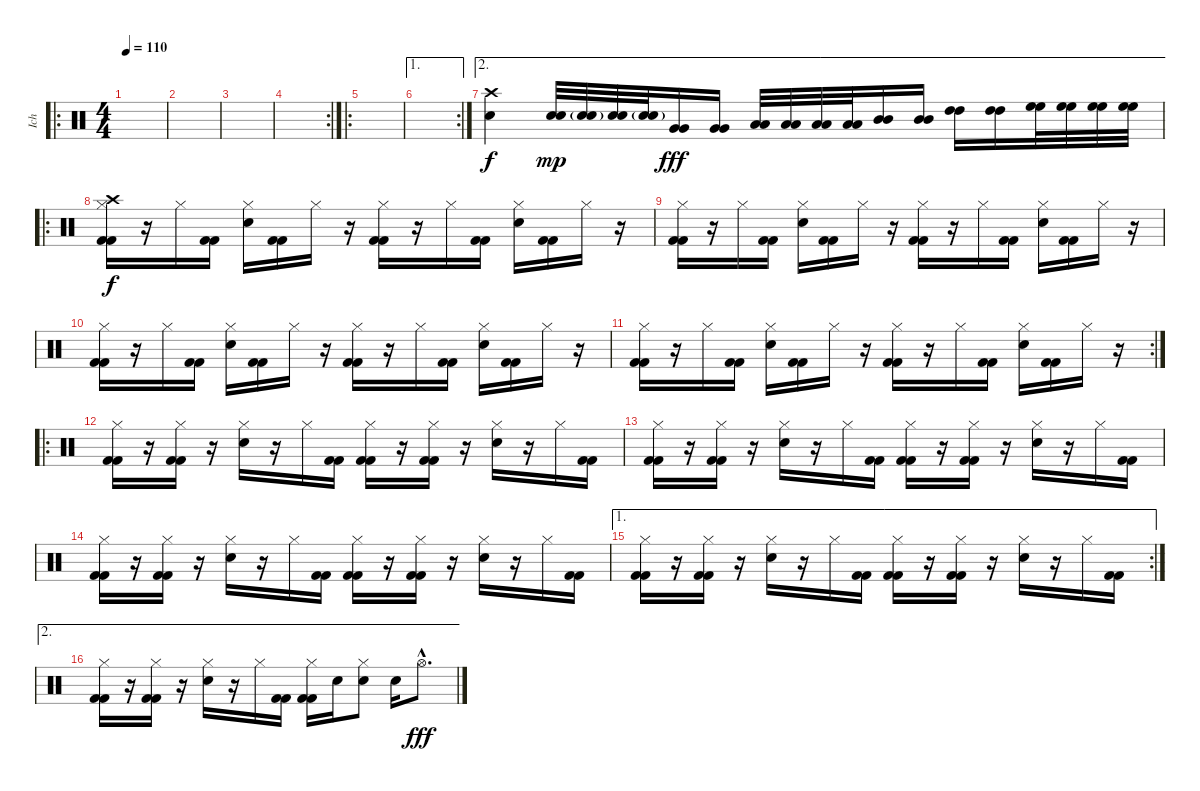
\track ("Ich" "Ich") {instrument percussion}
\staff {score}
\articulation defaults
\ro
\ts (4 4)
\tempo 110
\clef neutral
\ks c
|
|
|
\rc 2
|
\ro
|
\ae 1
\rc 2
|
\ae 2
("Crash high (hit)" "Snare (hit) 2").4 ("Electric Snare (hit)" "Electric Snare (hit)").32{dy mp} ("Electric Snare (hit)" "Electric Snare (hit)"{g}).32 ("Electric Snare (hit)" "Electric Snare (hit)").32 ("Electric Snare (hit)" "Electric Snare (hit)"{g}).32 ("Very Low Tom (hit)" "Very Low Tom (hit)").16{dy fff} ("Very Low Tom (hit)" "Very Low Tom (hit)").16 ("Low Tom (hit)" "Low Tom (hit)").32 ("Low Tom (hit)" "Low Tom (hit)").32 ("Low Tom (hit)" "Low Tom (hit)").32 ("Low Tom (hit)" "Low Tom (hit)").32 ("Mid Tom (hit)" "Mid Tom (hit)").16 ("Mid Tom (hit)" "Mid Tom (hit)").16 ("High Tom (hit)" "High Tom (hit)").16 ("High Tom (hit)" "High Tom (hit)").16 ("High Floor Tom (hit)" "High Floor Tom (hit)").32 ("High Floor Tom (hit)" "High Floor Tom (hit)").32 ("High Floor Tom (hit)" "High Floor Tom (hit)").32 ("High Floor Tom (hit)" "High Floor Tom (hit)").32 |
\ro
("Hi-Hat (closed)" "Crash high (hit)" "Kick (hit) 2" "Kick (hit) 2").16{dy f} r.16 "Hi-Hat (closed)".16 ("Kick (hit) 2" "Kick (hit) 2").16 ("Hi-Hat (closed)" "Snare (hit) 2").16 ("Kick (hit) 2" "Kick (hit) 2").16 "Hi-Hat (closed)".16 r.16 ("Hi-Hat (closed)" "Kick (hit) 2" "Kick (hit) 2").16 r.16 "Hi-Hat (closed)".16 ("Kick (hit) 2" "Kick (hit) 2").16 ("Hi-Hat (closed)" "Snare (hit) 2").16 ("Kick (hit) 2" "Kick (hit) 2").16 "Hi-Hat (closed)".16 r.16 |
("Hi-Hat (closed)" "Kick (hit) 2" "Kick (hit) 2").16 r.16 "Hi-Hat (closed)".16 ("Kick (hit) 2" "Kick (hit) 2").16 ("Hi-Hat (closed)" "Snare (hit) 2").16 ("Kick (hit) 2" "Kick (hit) 2").16 "Hi-Hat (closed)".16 r.16 ("Hi-Hat (closed)" "Kick (hit) 2" "Kick (hit) 2").16 r.16 "Hi-Hat (closed)".16 ("Kick (hit) 2" "Kick (hit) 2").16 ("Hi-Hat (closed)" "Snare (hit) 2").16 ("Kick (hit) 2" "Kick (hit) 2").16 "Hi-Hat (closed)".16 r.16 |
("Hi-Hat (closed)" "Kick (hit) 2" "Kick (hit) 2").16 r.16 "Hi-Hat (closed)".16 ("Kick (hit) 2" "Kick (hit) 2").16 ("Hi-Hat (closed)" "Snare (hit) 2").16 ("Kick (hit) 2" "Kick (hit) 2").16 "Hi-Hat (closed)".16 r.16 ("Hi-Hat (closed)" "Kick (hit) 2" "Kick (hit) 2").16 r.16 "Hi-Hat (closed)".16 ("Kick (hit) 2" "Kick (hit) 2").16 ("Hi-Hat (closed)" "Snare (hit) 2").16 ("Kick (hit) 2" "Kick (hit) 2").16 "Hi-Hat (closed)".16 r.16 |
\rc 2
("Hi-Hat (closed)" "Kick (hit) 2" "Kick (hit) 2").16 r.16 "Hi-Hat (closed)".16 ("Kick (hit) 2" "Kick (hit) 2").16 ("Hi-Hat (closed)" "Snare (hit) 2").16 ("Kick (hit) 2" "Kick (hit) 2").16 "Hi-Hat (closed)".16 r.16 ("Hi-Hat (closed)" "Kick (hit) 2" "Kick (hit) 2").16 r.16 "Hi-Hat (closed)".16 ("Kick (hit) 2" "Kick (hit) 2").16 ("Hi-Hat (closed)" "Snare (hit) 2").16 ("Kick (hit) 2" "Kick (hit) 2").16 "Hi-Hat (closed)".16 r.16 |
\ro
("Hi-Hat (closed)" "Kick (hit) 2" "Kick (hit) 2").16 r.16 ("Hi-Hat (closed)" "Kick (hit) 2" "Kick (hit) 2").16 r.16 ("Hi-Hat (closed)" "Snare (hit) 2").16 r.16 "Hi-Hat (closed)".16 ("Kick (hit) 2" "Kick (hit) 2").16 ("Hi-Hat (closed)" "Kick (hit) 2" "Kick (hit) 2").16 r.16 ("Hi-Hat (closed)" "Kick (hit) 2" "Kick (hit) 2").16 r.16 ("Hi-Hat (closed)" "Snare (hit) 2").16 r.16 "Hi-Hat (closed)".16 ("Kick (hit) 2" "Kick (hit) 2").16 |
("Hi-Hat (closed)" "Kick (hit) 2" "Kick (hit) 2").16 r.16 ("Hi-Hat (closed)" "Kick (hit) 2" "Kick (hit) 2").16 r.16 ("Hi-Hat (closed)" "Snare (hit) 2").16 r.16 "Hi-Hat (closed)".16 ("Kick (hit) 2" "Kick (hit) 2").16 ("Hi-Hat (closed)" "Kick (hit) 2" "Kick (hit) 2").16 r.16 ("Hi-Hat (closed)" "Kick (hit) 2" "Kick (hit) 2").16 r.16 ("Hi-Hat (closed)" "Snare (hit) 2").16 r.16 "Hi-Hat (closed)".16 ("Kick (hit) 2" "Kick (hit) 2").16 |
("Hi-Hat (closed)" "Kick (hit) 2" "Kick (hit) 2").16 r.16 ("Hi-Hat (closed)" "Kick (hit) 2" "Kick (hit) 2").16 r.16 ("Hi-Hat (closed)" "Snare (hit) 2").16 r.16 "Hi-Hat (closed)".16 ("Kick (hit) 2" "Kick (hit) 2").16 ("Hi-Hat (closed)" "Kick (hit) 2" "Kick (hit) 2").16 r.16 ("Hi-Hat (closed)" "Kick (hit) 2" "Kick (hit) 2").16 r.16 ("Hi-Hat (closed)" "Snare (hit) 2").16 r.16 "Hi-Hat (closed)".16 ("Kick (hit) 2" "Kick (hit) 2").16 |
\ae 1
\rc 2
("Hi-Hat (closed)" "Kick (hit) 2" "Kick (hit) 2").16 r.16 ("Hi-Hat (closed)" "Kick (hit) 2" "Kick (hit) 2").16 r.16 ("Hi-Hat (closed)" "Snare (hit) 2").16 r.16 "Hi-Hat (closed)".16 ("Kick (hit) 2" "Kick (hit) 2").16 ("Hi-Hat (closed)" "Kick (hit) 2" "Kick (hit) 2").16 r.16 ("Hi-Hat (closed)" "Kick (hit) 2" "Kick (hit) 2").16 r.16 ("Hi-Hat (closed)" "Snare (hit) 2").16 r.16 "Hi-Hat (closed)".16 ("Kick (hit) 2" "Kick (hit) 2").16 |
\ae 2
("Hi-Hat (closed)" "Kick (hit) 2" "Kick (hit) 2").16 r.16 ("Hi-Hat (closed)" "Kick (hit) 2" "Kick (hit) 2").16 r.16 ("Hi-Hat (closed)" "Snare (hit) 2").16 r.16 "Hi-Hat (closed)".16 ("Kick (hit) 2" "Kick (hit) 2").16 ("Hi-Hat (closed)" "Kick (hit) 2" "Kick (hit) 2").16 "Snare (hit) 2".16 ("Hi-Hat (closed)" "Snare (hit) 2").8 "Snare (hit) 2".16 "Hi-Hat (open)"{hac}.8{d dy fff}
